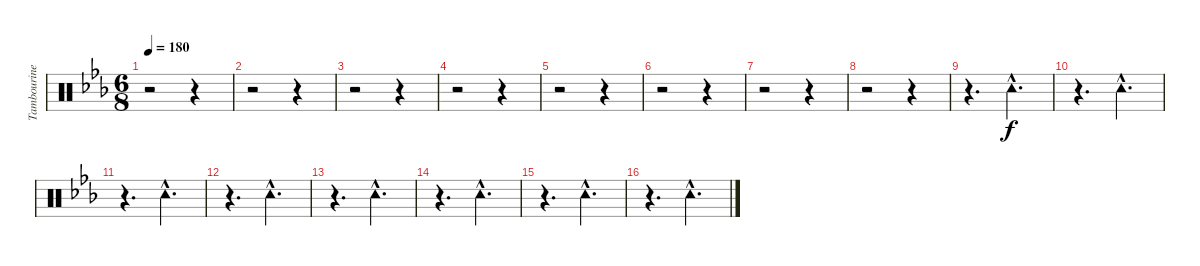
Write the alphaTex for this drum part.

\track ("Tambourine" "Tambourine") {instrument percussion}
\staff {score}
\articulation defaults
\ts (6 8)
\tempo 180
\clef neutral
\ks cminor
r.2{dy f} r.4 |
r.2 r.4 |
r.2 r.4 |
r.2 r.4 |
r.2 r.4 |
r.2 r.4 |
r.2 r.4 |
r.2 r.4 |
r.4{d} "Tambourine (hit)"{hac}.4{d} |
r.4{d} "Tambourine (hit)"{hac}.4{d} |
r.4{d} "Tambourine (hit)"{hac}.4{d} |
r.4{d} "Tambourine (hit)"{hac}.4{d} |
r.4{d} "Tambourine (hit)"{hac}.4{d} |
r.4{d} "Tambourine (hit)"{hac}.4{d} |
r.4{d} "Tambourine (hit)"{hac}.4{d} |
r.4{d} "Tambourine (hit)"{hac}.4{d}
